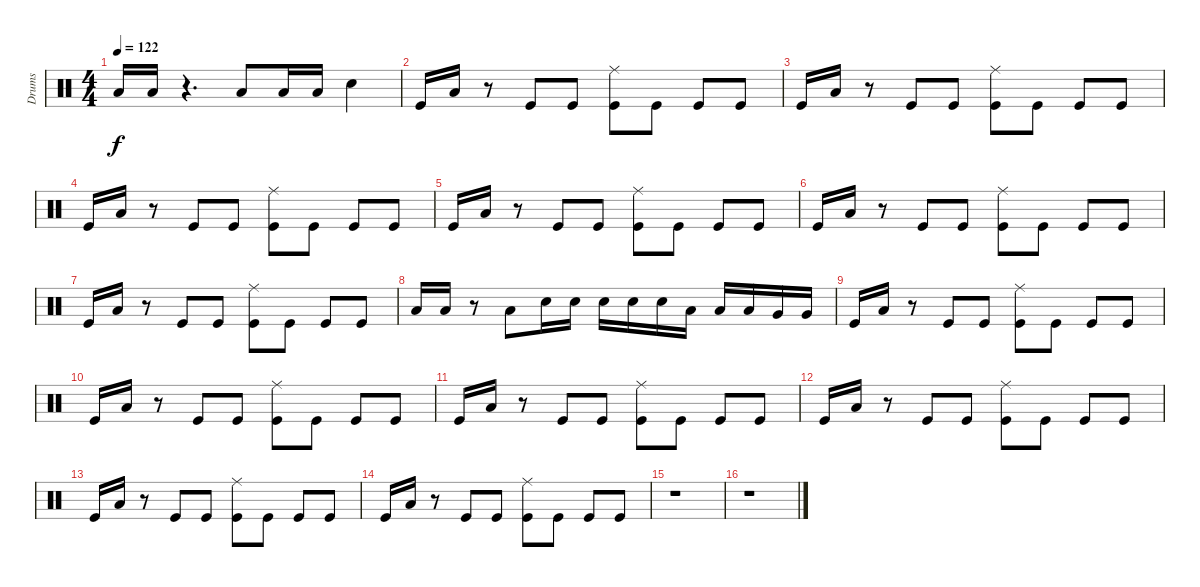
\track ("Drums" "Drums") {instrument percussion}
\staff {score}
\articulation defaults
\ts (4 4)
\tempo 122
\clef neutral
\ks c "Low Tom (hit)".16{dy f} "Low Tom (hit)".16
r.4{d} "Low Tom (hit)".8 "Low Tom (hit)".16 "Low Tom (hit)".16 "Snare (hit) 2".4 |
"Kick (hit)".16 "Low Tom (hit)".16 r.8 "Kick (hit)".8 "Kick (hit)".8 ("Ride (middle)" "Kick (hit)").8 "Kick (hit)".8 "Kick (hit)".8 "Kick (hit)".8 |
"Kick (hit)".16 "Low Tom (hit)".16 r.8 "Kick (hit)".8 "Kick (hit)".8 ("Ride (middle)" "Kick (hit)").8 "Kick (hit)".8 "Kick (hit)".8 "Kick (hit)".8 |
"Kick (hit)".16 "Low Tom (hit)".16 r.8 "Kick (hit)".8 "Kick (hit)".8 ("Ride (middle)" "Kick (hit)").8 "Kick (hit)".8 "Kick (hit)".8 "Kick (hit)".8 |
"Kick (hit)".16 "Low Tom (hit)".16 r.8 "Kick (hit)".8 "Kick (hit)".8 ("Ride (middle)" "Kick (hit)").8 "Kick (hit)".8 "Kick (hit)".8 "Kick (hit)".8 |
"Kick (hit)".16 "Low Tom (hit)".16 r.8 "Kick (hit)".8 "Kick (hit)".8 ("Ride (middle)" "Kick (hit)").8 "Kick (hit)".8 "Kick (hit)".8 "Kick (hit)".8 |
"Kick (hit)".16 "Low Tom (hit)".16 r.8 "Kick (hit)".8 "Kick (hit)".8 ("Ride (middle)" "Kick (hit)").8 "Kick (hit)".8 "Kick (hit)".8 "Kick (hit)".8 |
"Low Tom (hit)".16 "Low Tom (hit)".16 r.8 "Low Tom (hit)".8 "Snare (hit) 2".16 "Snare (hit) 2".16 "Snare (hit) 2".16 "Snare (hit) 2".16 "Snare (hit) 2".16 "Low Tom (hit)".16 "Low Tom (hit)".16 "Low Tom (hit)".16 "Very Low Tom (hit)".16 "Very Low Tom (hit)".16 |
"Kick (hit)".16 "Low Tom (hit)".16 r.8 "Kick (hit)".8 "Kick (hit)".8 ("Ride (middle)" "Kick (hit)").8 "Kick (hit)".8 "Kick (hit)".8 "Kick (hit)".8 |
"Kick (hit)".16 "Low Tom (hit)".16 r.8 "Kick (hit)".8 "Kick (hit)".8 ("Ride (middle)" "Kick (hit)").8 "Kick (hit)".8 "Kick (hit)".8 "Kick (hit)".8 |
"Kick (hit)".16 "Low Tom (hit)".16 r.8 "Kick (hit)".8 "Kick (hit)".8 ("Ride (middle)" "Kick (hit)").8 "Kick (hit)".8 "Kick (hit)".8 "Kick (hit)".8 |
"Kick (hit)".16 "Low Tom (hit)".16 r.8 "Kick (hit)".8 "Kick (hit)".8 ("Ride (middle)" "Kick (hit)").8 "Kick (hit)".8 "Kick (hit)".8 "Kick (hit)".8 |
"Kick (hit)".16 "Low Tom (hit)".16 r.8 "Kick (hit)".8 "Kick (hit)".8 ("Ride (middle)" "Kick (hit)").8 "Kick (hit)".8 "Kick (hit)".8 "Kick (hit)".8 |
"Kick (hit)".16 "Low Tom (hit)".16 r.8 "Kick (hit)".8 "Kick (hit)".8 ("Ride (middle)" "Kick (hit)").8 "Kick (hit)".8 "Kick (hit)".8 "Kick (hit)".8 |
r.1 |
r.1
